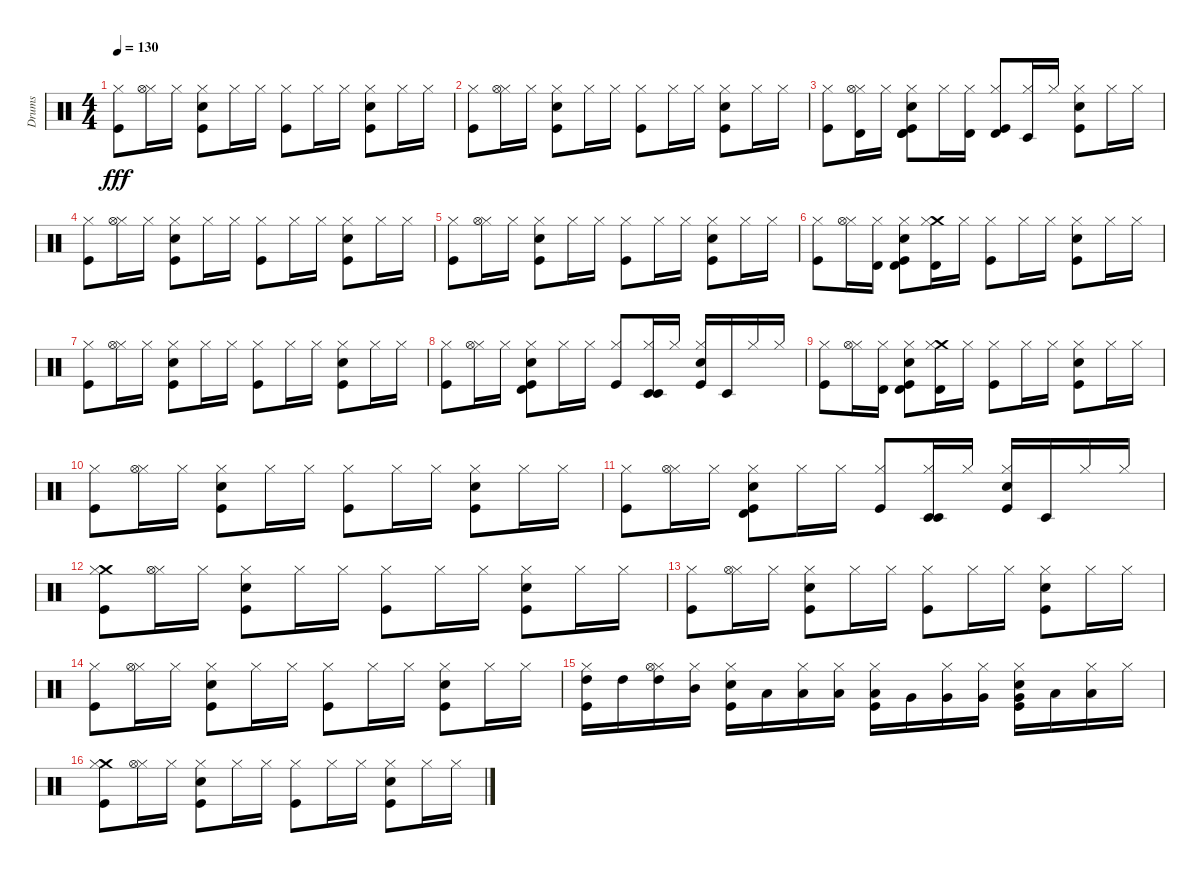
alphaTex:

\track ("Drums" "Drums") {instrument percussion}
\staff {score}
\articulation defaults
\ts (4 4)
\tempo 130
\clef neutral
\ks c
("Kick (hit)" "Hi-Hat (closed)").8{dy fff} ("Hi-Hat (closed)" "Hi-Hat (open)").16 "Hi-Hat (closed)".16 ("Kick (hit)" "Electric Snare (hit)" "Hi-Hat (closed)").8 "Hi-Hat (closed)".16 "Hi-Hat (closed)".16 ("Kick (hit)" "Hi-Hat (closed)").8 "Hi-Hat (closed)".16 "Hi-Hat (closed)".16 ("Kick (hit)" "Electric Snare (hit)" "Hi-Hat (closed)").8 "Hi-Hat (closed)".16 "Hi-Hat (closed)".16 |
("Kick (hit)" "Hi-Hat (closed)").8 ("Hi-Hat (closed)" "Hi-Hat (open)").16 "Hi-Hat (closed)".16 ("Kick (hit)" "Electric Snare (hit)" "Hi-Hat (closed)").8 "Hi-Hat (closed)".16 "Hi-Hat (closed)".16 ("Kick (hit)" "Hi-Hat (closed)").8 "Hi-Hat (closed)".16 "Hi-Hat (closed)".16 ("Kick (hit)" "Electric Snare (hit)" "Hi-Hat (closed)").8 "Hi-Hat (closed)".16 "Hi-Hat (closed)".16 |
("Kick (hit)" "Hi-Hat (closed)").8 ("Hi-Hat (closed)" "Hi-Hat (open)" "Timbale high (hit)").16 "Hi-Hat (closed)".16 ("Kick (hit)" "Electric Snare (hit)" "Hi-Hat (closed)" "Timbale high (hit)" "Timbale high (hit)").8 "Hi-Hat (closed)".16 ("Hi-Hat (closed)" "Timbale high (hit)").16 ("Kick (hit)" "Hi-Hat (closed)" "Timbale high (hit)").8 ("Hi-Hat (closed)" "Timbale low (hit)").16 "Hi-Hat (closed)".16 ("Kick (hit)" "Electric Snare (hit)" "Hi-Hat (closed)").8 "Hi-Hat (closed)".16 "Hi-Hat (closed)".16 |
("Kick (hit)" "Hi-Hat (closed)").8 ("Hi-Hat (closed)" "Hi-Hat (open)").16 "Hi-Hat (closed)".16 ("Kick (hit)" "Electric Snare (hit)" "Hi-Hat (closed)").8 "Hi-Hat (closed)".16 "Hi-Hat (closed)".16 ("Kick (hit)" "Hi-Hat (closed)").8 "Hi-Hat (closed)".16 "Hi-Hat (closed)".16 ("Kick (hit)" "Electric Snare (hit)" "Hi-Hat (closed)").8 "Hi-Hat (closed)".16 "Hi-Hat (closed)".16 |
("Kick (hit)" "Hi-Hat (closed)").8 ("Hi-Hat (closed)" "Hi-Hat (open)").16 "Hi-Hat (closed)".16 ("Kick (hit)" "Electric Snare (hit)" "Hi-Hat (closed)").8 "Hi-Hat (closed)".16 "Hi-Hat (closed)".16 ("Kick (hit)" "Hi-Hat (closed)").8 "Hi-Hat (closed)".16 "Hi-Hat (closed)".16 ("Kick (hit)" "Electric Snare (hit)" "Hi-Hat (closed)").8 "Hi-Hat (closed)".16 "Hi-Hat (closed)".16 |
("Kick (hit)" "Hi-Hat (closed)").8 ("Hi-Hat (closed)" "Hi-Hat (open)").16 ("Hi-Hat (closed)" "Timbale high (hit)").16 ("Kick (hit)" "Electric Snare (hit)" "Hi-Hat (closed)" "Timbale high (hit)").8 ("Crash medium (hit)" "Hi-Hat (closed)" "Timbale high (hit)").16 "Hi-Hat (closed)".16 ("Kick (hit)" "Hi-Hat (closed)").8 "Hi-Hat (closed)".16 "Hi-Hat (closed)".16 ("Kick (hit)" "Electric Snare (hit)" "Hi-Hat (closed)").8 "Hi-Hat (closed)".16 "Hi-Hat (closed)".16 |
("Kick (hit)" "Hi-Hat (closed)").8 ("Hi-Hat (closed)" "Hi-Hat (open)").16 "Hi-Hat (closed)".16 ("Kick (hit)" "Electric Snare (hit)" "Hi-Hat (closed)").8 "Hi-Hat (closed)".16 "Hi-Hat (closed)".16 ("Kick (hit)" "Hi-Hat (closed)").8 "Hi-Hat (closed)".16 "Hi-Hat (closed)".16 ("Kick (hit)" "Electric Snare (hit)" "Hi-Hat (closed)").8 "Hi-Hat (closed)".16 "Hi-Hat (closed)".16 |
("Kick (hit)" "Hi-Hat (closed)").8 ("Hi-Hat (closed)" "Hi-Hat (open)").16 "Hi-Hat (closed)".16 ("Kick (hit)" "Electric Snare (hit)" "Hi-Hat (closed)" "Timbale high (hit)").8 "Hi-Hat (closed)".16 "Hi-Hat (closed)".16 ("Kick (hit)" "Hi-Hat (closed)").8 ("Hi-Hat (closed)" "Timbale low (hit)" "Timbale low (hit)").16 "Hi-Hat (closed)".16 ("Kick (hit)" "Electric Snare (hit)" "Hi-Hat (closed)").16 "Timbale low (hit)".16 "Hi-Hat (closed)".16 "Hi-Hat (closed)".16 |
("Kick (hit)" "Hi-Hat (closed)").8 ("Hi-Hat (closed)" "Hi-Hat (open)").16 ("Hi-Hat (closed)" "Timbale high (hit)").16 ("Kick (hit)" "Electric Snare (hit)" "Hi-Hat (closed)" "Timbale high (hit)").8 ("Crash medium (hit)" "Hi-Hat (closed)" "Timbale high (hit)").16 "Hi-Hat (closed)".16 ("Kick (hit)" "Hi-Hat (closed)").8 "Hi-Hat (closed)".16 "Hi-Hat (closed)".16 ("Kick (hit)" "Electric Snare (hit)" "Hi-Hat (closed)").8 "Hi-Hat (closed)".16 "Hi-Hat (closed)".16 |
("Kick (hit)" "Hi-Hat (closed)").8 ("Hi-Hat (closed)" "Hi-Hat (open)").16 "Hi-Hat (closed)".16 ("Kick (hit)" "Electric Snare (hit)" "Hi-Hat (closed)").8 "Hi-Hat (closed)".16 "Hi-Hat (closed)".16 ("Kick (hit)" "Hi-Hat (closed)").8 "Hi-Hat (closed)".16 "Hi-Hat (closed)".16 ("Kick (hit)" "Electric Snare (hit)" "Hi-Hat (closed)").8 "Hi-Hat (closed)".16 "Hi-Hat (closed)".16 |
("Kick (hit)" "Hi-Hat (closed)").8 ("Hi-Hat (closed)" "Hi-Hat (open)").16 "Hi-Hat (closed)".16 ("Kick (hit)" "Electric Snare (hit)" "Hi-Hat (closed)" "Timbale high (hit)").8 "Hi-Hat (closed)".16 "Hi-Hat (closed)".16 ("Kick (hit)" "Hi-Hat (closed)").8 ("Hi-Hat (closed)" "Timbale low (hit)" "Timbale low (hit)").16 "Hi-Hat (closed)".16 ("Kick (hit)" "Electric Snare (hit)" "Hi-Hat (closed)").16 "Timbale low (hit)".16 "Hi-Hat (closed)".16 "Hi-Hat (closed)".16 |
("Crash medium (hit)" "Kick (hit)" "Hi-Hat (closed)").8 ("Hi-Hat (closed)" "Hi-Hat (open)").16 "Hi-Hat (closed)".16 ("Kick (hit)" "Electric Snare (hit)" "Hi-Hat (closed)").8 "Hi-Hat (closed)".16 "Hi-Hat (closed)".16 ("Kick (hit)" "Hi-Hat (closed)").8 "Hi-Hat (closed)".16 "Hi-Hat (closed)".16 ("Kick (hit)" "Electric Snare (hit)" "Hi-Hat (closed)").8 "Hi-Hat (closed)".16 "Hi-Hat (closed)".16 |
("Kick (hit)" "Hi-Hat (closed)").8 ("Hi-Hat (closed)" "Hi-Hat (open)").16 "Hi-Hat (closed)".16 ("Kick (hit)" "Electric Snare (hit)" "Hi-Hat (closed)").8 "Hi-Hat (closed)".16 "Hi-Hat (closed)".16 ("Kick (hit)" "Hi-Hat (closed)").8 "Hi-Hat (closed)".16 "Hi-Hat (closed)".16 ("Kick (hit)" "Electric Snare (hit)" "Hi-Hat (closed)").8 "Hi-Hat (closed)".16 "Hi-Hat (closed)".16 |
("Kick (hit)" "Hi-Hat (closed)").8 ("Hi-Hat (closed)" "Hi-Hat (open)").16 "Hi-Hat (closed)".16 ("Kick (hit)" "Electric Snare (hit)" "Hi-Hat (closed)").8 "Hi-Hat (closed)".16 "Hi-Hat (closed)".16 ("Kick (hit)" "Hi-Hat (closed)").8 "Hi-Hat (closed)".16 "Hi-Hat (closed)".16 ("Kick (hit)" "Electric Snare (hit)" "Hi-Hat (closed)").8 "Hi-Hat (closed)".16 "Hi-Hat (closed)".16 |
("Kick (hit)" "Hi-Hat (closed)" "High Tom (hit)").16 "High Tom (hit)".16 ("Hi-Hat (closed)" "Hi-Hat (open)" "High Tom (hit)").16 ("Hi-Hat (closed)" "Mid Tom (hit)").16 ("Kick (hit)" "Electric Snare (hit)" "Hi-Hat (closed)").16 "Low Tom (hit)".16 ("Hi-Hat (closed)" "Low Tom (hit)").16 ("Hi-Hat (closed)" "Low Tom (hit)").16 ("Kick (hit)" "Hi-Hat (closed)" "Low Tom (hit)").16 "Very Low Tom (hit)".16 ("Hi-Hat (closed)" "Very Low Tom (hit)").16 ("Hi-Hat (closed)" "Very Low Tom (hit)").16 ("Kick (hit)" "Electric Snare (hit)" "Hi-Hat (closed)" "Very Low Tom (hit)").16 "Low Floor Tom (hit)".16 ("Low Floor Tom (hit)" "Hi-Hat (closed)").16 "Hi-Hat (closed)".16 |
("Crash medium (hit)" "Kick (hit)" "Hi-Hat (closed)").8 ("Hi-Hat (closed)" "Hi-Hat (open)").16 "Hi-Hat (closed)".16 ("Kick (hit)" "Electric Snare (hit)" "Hi-Hat (closed)").8 "Hi-Hat (closed)".16 "Hi-Hat (closed)".16 ("Kick (hit)" "Hi-Hat (closed)").8 "Hi-Hat (closed)".16 "Hi-Hat (closed)".16 ("Kick (hit)" "Electric Snare (hit)" "Hi-Hat (closed)").8 "Hi-Hat (closed)".16 "Hi-Hat (closed)".16
